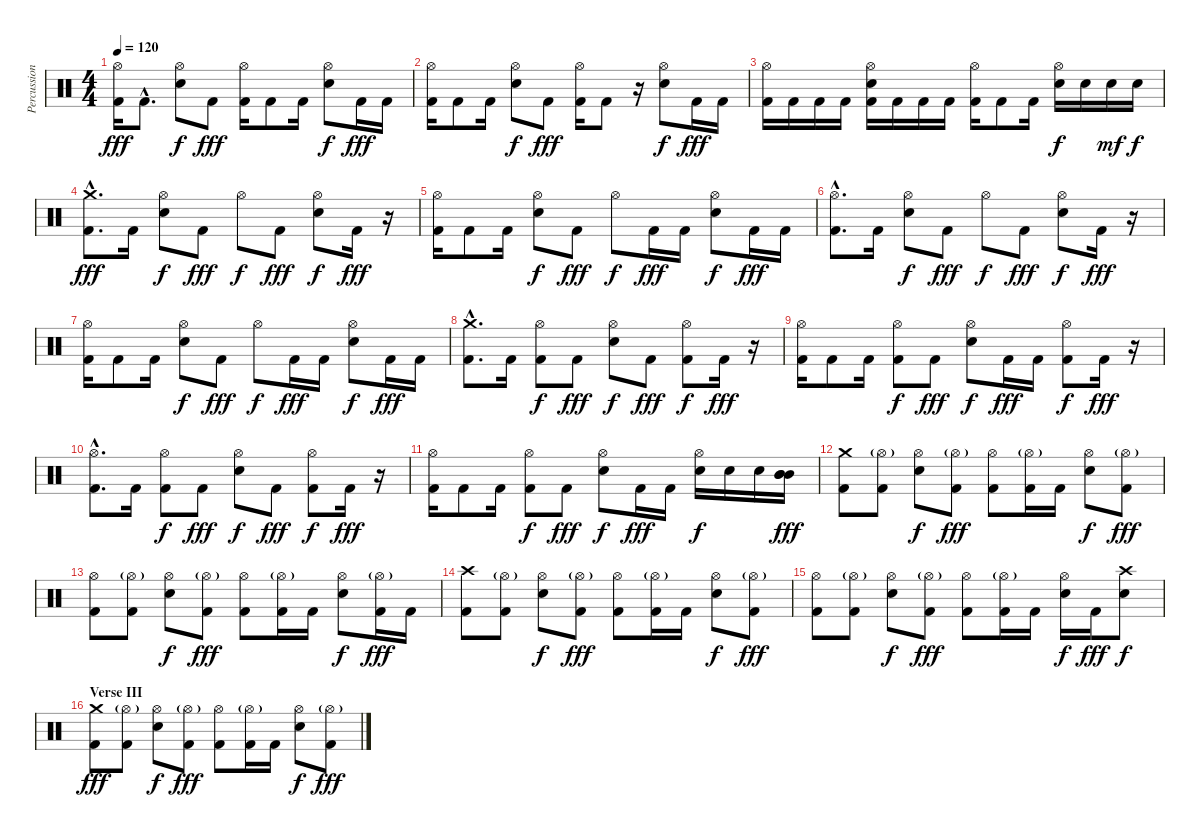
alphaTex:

\track ("Percussion" "Percussion") {instrument percussion}
\staff {score}
\articulation defaults
\ts (4 4)
\tempo 120
\clef neutral
\ks c
("Hi-Hat (open)" "Kick (hit) 2").16{dy fff} "Kick (hit) 2"{hac}.8{d} ("Hi-Hat (open)" "Snare (hit) 2").8{dy f} "Kick (hit) 2".8{dy fff} ("Hi-Hat (open)" "Kick (hit) 2").16 "Kick (hit) 2".8 "Kick (hit) 2".16 ("Hi-Hat (open)" "Snare (hit) 2").8{dy f} "Kick (hit) 2".16{dy fff} "Kick (hit) 2".16 |
("Hi-Hat (open)" "Kick (hit) 2").16 "Kick (hit) 2".8 "Kick (hit) 2".16 ("Hi-Hat (open)" "Snare (hit) 2").8{dy f} "Kick (hit) 2".8{dy fff} ("Hi-Hat (open)" "Kick (hit) 2").16 "Kick (hit) 2".8 r.16 ("Hi-Hat (open)" "Snare (hit) 2").8{dy f} "Kick (hit) 2".16{dy fff} "Kick (hit) 2".16 |
("Hi-Hat (open)" "Kick (hit) 2").16 "Kick (hit) 2".16 "Kick (hit) 2".16 "Kick (hit) 2".16 ("Hi-Hat (open)" "Snare (hit) 2" "Kick (hit) 2").16 "Kick (hit) 2".16 "Kick (hit) 2".16 "Kick (hit) 2".16 ("Hi-Hat (open)" "Kick (hit) 2").16 "Kick (hit) 2".8 "Kick (hit) 2".16 ("Hi-Hat (open)" "Snare (hit) 2").16{dy f} "Snare (hit) 2".16 "Snare (hit) 2".16{dy mf} "Snare (hit) 2".16{dy f} |
("Crash medium (hit)"{hac} "Kick (hit) 2"{hac}).8{d dy fff} "Kick (hit) 2".16 ("Hi-Hat (open)" "Snare (hit) 2").8{dy f} "Kick (hit) 2".8{dy fff} "Hi-Hat (open)".8{dy f} "Kick (hit) 2".8{dy fff} ("Hi-Hat (open)" "Snare (hit) 2").8{dy f} "Kick (hit) 2".16{dy fff} r.16 |
("Hi-Hat (open)" "Kick (hit) 2").16 "Kick (hit) 2".8 "Kick (hit) 2".16 ("Hi-Hat (open)" "Snare (hit) 2").8{dy f} "Kick (hit) 2".8{dy fff} "Hi-Hat (open)".8{dy f} "Kick (hit) 2".16{dy fff} "Kick (hit) 2".16 ("Hi-Hat (open)" "Snare (hit) 2").8{dy f} "Kick (hit) 2".16{dy fff} "Kick (hit) 2".16 |
("Hi-Hat (open)"{hac} "Kick (hit) 2"{hac}).8{d} "Kick (hit) 2".16 ("Hi-Hat (open)" "Snare (hit) 2").8{dy f} "Kick (hit) 2".8{dy fff} "Hi-Hat (open)".8{dy f} "Kick (hit) 2".8{dy fff} ("Hi-Hat (open)" "Snare (hit) 2").8{dy f} "Kick (hit) 2".16{dy fff} r.16 |
("Hi-Hat (open)" "Kick (hit) 2").16 "Kick (hit) 2".8 "Kick (hit) 2".16 ("Hi-Hat (open)" "Snare (hit) 2").8{dy f} "Kick (hit) 2".8{dy fff} "Hi-Hat (open)".8{dy f} "Kick (hit) 2".16{dy fff} "Kick (hit) 2".16 ("Hi-Hat (open)" "Snare (hit) 2").8{dy f} "Kick (hit) 2".16{dy fff} "Kick (hit) 2".16 |
("Crash medium (hit)"{hac} "Kick (hit) 2"{hac}).8{d} "Kick (hit) 2".16 ("Hi-Hat (open)" "Kick (hit) 2").8{dy f} "Kick (hit) 2".8{dy fff} ("Hi-Hat (open)" "Snare (hit) 2").8{dy f} "Kick (hit) 2".8{dy fff} ("Hi-Hat (open)" "Kick (hit) 2").8{dy f} "Kick (hit) 2".16{dy fff} r.16 |
("Hi-Hat (open)" "Kick (hit) 2").16 "Kick (hit) 2".8 "Kick (hit) 2".16 ("Hi-Hat (open)" "Kick (hit) 2").8{dy f} "Kick (hit) 2".8{dy fff} ("Hi-Hat (open)" "Snare (hit) 2").8{dy f} "Kick (hit) 2".16{dy fff} "Kick (hit) 2".16 ("Hi-Hat (open)" "Kick (hit) 2").8{dy f} "Kick (hit) 2".16{dy fff} r.16 |
("Hi-Hat (open)"{hac} "Kick (hit) 2"{hac}).8{d} "Kick (hit) 2".16 ("Hi-Hat (open)" "Kick (hit) 2").8{dy f} "Kick (hit) 2".8{dy fff} ("Hi-Hat (open)" "Snare (hit) 2").8{dy f} "Kick (hit) 2".8{dy fff} ("Hi-Hat (open)" "Kick (hit) 2").8{dy f} "Kick (hit) 2".16{dy fff} r.16 |
("Hi-Hat (open)" "Kick (hit) 2").16 "Kick (hit) 2".8 "Kick (hit) 2".16 ("Hi-Hat (open)" "Kick (hit) 2").8{dy f} "Kick (hit) 2".8{dy fff} ("Hi-Hat (open)" "Snare (hit) 2").8{dy f} "Kick (hit) 2".16{dy fff} "Kick (hit) 2".16 ("Hi-Hat (open)" "Snare (hit) 2").16{dy f} "Snare (hit) 2".16 "Snare (hit) 2".16 ("Mid Tom (hit)" "Mid Tom (hit)" "Mid Tom (hit)").16{dy fff} |
("Crash medium (hit)" "Kick (hit) 2").8 ("Hi-Hat (open)"{g} "Kick (hit) 2").8 ("Hi-Hat (open)" "Snare (hit) 2").8{dy f} ("Hi-Hat (open)"{g} "Kick (hit) 2").8{dy fff} ("Hi-Hat (open)" "Kick (hit) 2").8 ("Hi-Hat (open)"{g} "Kick (hit) 2").16 "Kick (hit) 2".16 ("Hi-Hat (open)" "Snare (hit) 2").8{dy f} ("Hi-Hat (open)"{g} "Kick (hit) 2").8{dy fff} |
("Hi-Hat (open)" "Kick (hit) 2").8 ("Hi-Hat (open)"{g} "Kick (hit) 2").8 ("Hi-Hat (open)" "Snare (hit) 2").8{dy f} ("Hi-Hat (open)"{g} "Kick (hit) 2").8{dy fff} ("Hi-Hat (open)" "Kick (hit) 2").8 ("Hi-Hat (open)"{g} "Kick (hit) 2").16 "Kick (hit) 2".16 ("Hi-Hat (open)" "Snare (hit) 2").8{dy f} ("Hi-Hat (open)"{g} "Kick (hit) 2").16{dy fff} "Kick (hit) 2".16 |
("Crash high (hit)" "Kick (hit) 2").8 ("Hi-Hat (open)"{g} "Kick (hit) 2").8 ("Hi-Hat (open)" "Snare (hit) 2").8{dy f} ("Hi-Hat (open)"{g} "Kick (hit) 2").8{dy fff} ("Hi-Hat (open)" "Kick (hit) 2").8 ("Hi-Hat (open)"{g} "Kick (hit) 2").16 "Kick (hit) 2".16 ("Hi-Hat (open)" "Snare (hit) 2").8{dy f} ("Hi-Hat (open)"{g} "Kick (hit) 2").8{dy fff} |
("Hi-Hat (open)" "Kick (hit) 2").8 ("Hi-Hat (open)"{g} "Kick (hit) 2").8 ("Hi-Hat (open)" "Snare (hit) 2").8{dy f} ("Hi-Hat (open)"{g} "Kick (hit) 2").8{dy fff} ("Hi-Hat (open)" "Kick (hit) 2").8 ("Hi-Hat (open)"{g} "Kick (hit) 2").16 "Kick (hit) 2".16 ("Hi-Hat (open)" "Snare (hit) 2").16{dy f} "Kick (hit) 2".16{dy fff} ("Crash high (hit)" "Snare (hit) 2").8{dy f} |
\section ("" "Verse III")
("Crash medium (hit)" "Kick (hit) 2").8{dy fff} ("Hi-Hat (open)"{g} "Kick (hit) 2").8 ("Hi-Hat (open)" "Snare (hit) 2").8{dy f} ("Hi-Hat (open)"{g} "Kick (hit) 2").8{dy fff} ("Hi-Hat (open)" "Kick (hit) 2").8 ("Hi-Hat (open)"{g} "Kick (hit) 2").16 "Kick (hit) 2".16 ("Hi-Hat (open)" "Snare (hit) 2").8{dy f} ("Hi-Hat (open)"{g} "Kick (hit) 2").8{dy fff}
